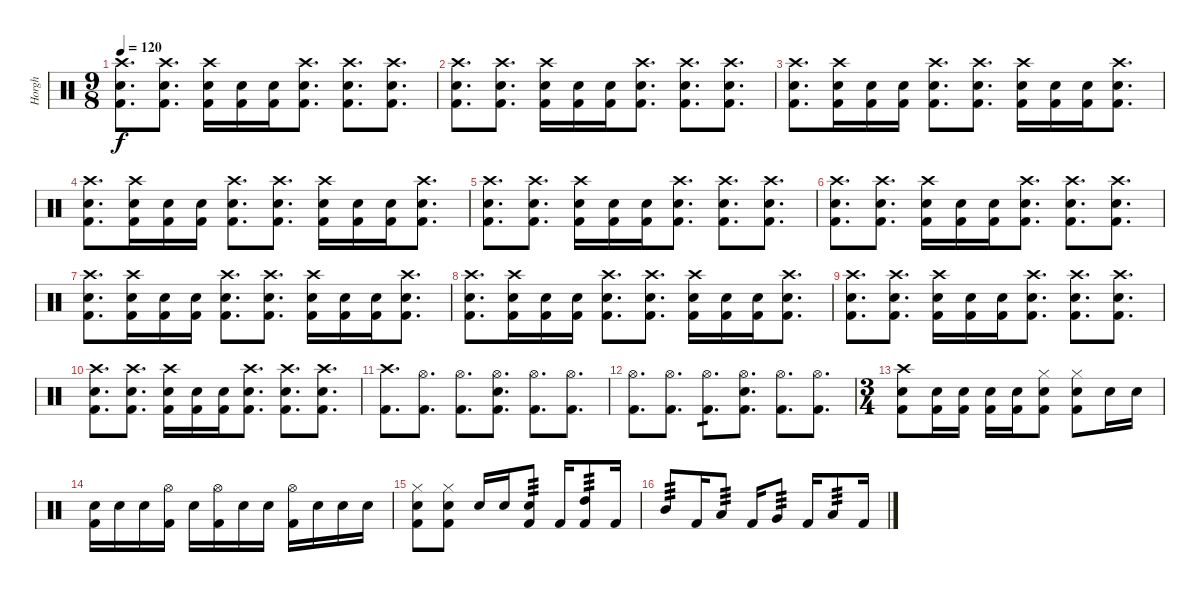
\track ("Horgh" "Horgh") {instrument percussion}
\staff {score}
\articulation defaults
\ts (9 8)
\tempo 120
\clef neutral
\ks c
("Crash high (hit)" "Snare (hit) 2" "Kick (hit) 2").8{d dy f} ("Crash high (hit)" "Snare (hit) 2" "Kick (hit) 2").8{d} ("Crash high (hit)" "Snare (hit) 2" "Kick (hit) 2").16 ("Snare (hit) 2" "Kick (hit) 2").16 ("Snare (hit) 2" "Kick (hit) 2").16 ("Crash high (hit)" "Snare (hit) 2" "Kick (hit) 2").8{d} ("Crash high (hit)" "Snare (hit) 2" "Kick (hit) 2").8{d} ("Crash high (hit)" "Snare (hit) 2" "Kick (hit) 2").8{d} |
("Crash high (hit)" "Snare (hit) 2" "Kick (hit) 2").8{d} ("Crash high (hit)" "Snare (hit) 2" "Kick (hit) 2").8{d} ("Crash high (hit)" "Snare (hit) 2" "Kick (hit) 2").16 ("Snare (hit) 2" "Kick (hit) 2").16 ("Snare (hit) 2" "Kick (hit) 2").16 ("Crash high (hit)" "Snare (hit) 2" "Kick (hit) 2").8{d} ("Crash high (hit)" "Snare (hit) 2" "Kick (hit) 2").8{d} ("Crash high (hit)" "Snare (hit) 2" "Kick (hit) 2").8{d} |
("Crash high (hit)" "Snare (hit) 2" "Kick (hit) 2").8{d} ("Crash high (hit)" "Snare (hit) 2" "Kick (hit) 2").16 ("Snare (hit) 2" "Kick (hit) 2").16 ("Snare (hit) 2" "Kick (hit) 2").16 ("Crash high (hit)" "Snare (hit) 2" "Kick (hit) 2").8{d} ("Crash high (hit)" "Snare (hit) 2" "Kick (hit) 2").8{d} ("Crash high (hit)" "Snare (hit) 2" "Kick (hit) 2").16 ("Snare (hit) 2" "Kick (hit) 2").16 ("Snare (hit) 2" "Kick (hit) 2").16 ("Crash high (hit)" "Snare (hit) 2" "Kick (hit) 2").8{d} |
("Crash high (hit)" "Snare (hit) 2" "Kick (hit) 2").8{d} ("Crash high (hit)" "Snare (hit) 2" "Kick (hit) 2").16 ("Snare (hit) 2" "Kick (hit) 2").16 ("Snare (hit) 2" "Kick (hit) 2").16 ("Crash high (hit)" "Snare (hit) 2" "Kick (hit) 2").8{d} ("Crash high (hit)" "Snare (hit) 2" "Kick (hit) 2").8{d} ("Crash high (hit)" "Snare (hit) 2" "Kick (hit) 2").16 ("Snare (hit) 2" "Kick (hit) 2").16 ("Snare (hit) 2" "Kick (hit) 2").16 ("Crash high (hit)" "Snare (hit) 2" "Kick (hit) 2").8{d} |
("Crash high (hit)" "Snare (hit) 2" "Kick (hit) 2").8{d} ("Crash high (hit)" "Snare (hit) 2" "Kick (hit) 2").8{d} ("Crash high (hit)" "Snare (hit) 2" "Kick (hit) 2").16 ("Snare (hit) 2" "Kick (hit) 2").16 ("Snare (hit) 2" "Kick (hit) 2").16 ("Crash high (hit)" "Snare (hit) 2" "Kick (hit) 2").8{d} ("Crash high (hit)" "Snare (hit) 2" "Kick (hit) 2").8{d} ("Crash high (hit)" "Snare (hit) 2" "Kick (hit) 2").8{d} |
("Crash high (hit)" "Snare (hit) 2" "Kick (hit) 2").8{d} ("Crash high (hit)" "Snare (hit) 2" "Kick (hit) 2").8{d} ("Crash high (hit)" "Snare (hit) 2" "Kick (hit) 2").16 ("Snare (hit) 2" "Kick (hit) 2").16 ("Snare (hit) 2" "Kick (hit) 2").16 ("Crash high (hit)" "Snare (hit) 2" "Kick (hit) 2").8{d} ("Crash high (hit)" "Snare (hit) 2" "Kick (hit) 2").8{d} ("Crash high (hit)" "Snare (hit) 2" "Kick (hit) 2").8{d} |
("Crash high (hit)" "Snare (hit) 2" "Kick (hit) 2").8{d} ("Crash high (hit)" "Snare (hit) 2" "Kick (hit) 2").16 ("Snare (hit) 2" "Kick (hit) 2").16 ("Snare (hit) 2" "Kick (hit) 2").16 ("Crash high (hit)" "Snare (hit) 2" "Kick (hit) 2").8{d} ("Crash high (hit)" "Snare (hit) 2" "Kick (hit) 2").8{d} ("Crash high (hit)" "Snare (hit) 2" "Kick (hit) 2").16 ("Snare (hit) 2" "Kick (hit) 2").16 ("Snare (hit) 2" "Kick (hit) 2").16 ("Crash high (hit)" "Snare (hit) 2" "Kick (hit) 2").8{d} |
("Crash high (hit)" "Snare (hit) 2" "Kick (hit) 2").8{d} ("Crash high (hit)" "Snare (hit) 2" "Kick (hit) 2").16 ("Snare (hit) 2" "Kick (hit) 2").16 ("Snare (hit) 2" "Kick (hit) 2").16 ("Crash high (hit)" "Snare (hit) 2" "Kick (hit) 2").8{d} ("Crash high (hit)" "Snare (hit) 2" "Kick (hit) 2").8{d} ("Crash high (hit)" "Snare (hit) 2" "Kick (hit) 2").16 ("Snare (hit) 2" "Kick (hit) 2").16 ("Snare (hit) 2" "Kick (hit) 2").16 ("Crash high (hit)" "Snare (hit) 2" "Kick (hit) 2").8{d} |
("Crash high (hit)" "Snare (hit) 2" "Kick (hit) 2").8{d} ("Crash high (hit)" "Snare (hit) 2" "Kick (hit) 2").8{d} ("Crash high (hit)" "Snare (hit) 2" "Kick (hit) 2").16 ("Snare (hit) 2" "Kick (hit) 2").16 ("Snare (hit) 2" "Kick (hit) 2").16 ("Crash high (hit)" "Snare (hit) 2" "Kick (hit) 2").8{d} ("Crash high (hit)" "Snare (hit) 2" "Kick (hit) 2").8{d} ("Crash high (hit)" "Snare (hit) 2" "Kick (hit) 2").8{d} |
("Crash high (hit)" "Snare (hit) 2" "Kick (hit) 2").8{d} ("Crash high (hit)" "Snare (hit) 2" "Kick (hit) 2").8{d} ("Crash high (hit)" "Snare (hit) 2" "Kick (hit) 2").16 ("Snare (hit) 2" "Kick (hit) 2").16 ("Snare (hit) 2" "Kick (hit) 2").16 ("Crash high (hit)" "Snare (hit) 2" "Kick (hit) 2").8{d} ("Crash high (hit)" "Snare (hit) 2" "Kick (hit) 2").8{d} ("Crash high (hit)" "Snare (hit) 2" "Kick (hit) 2").8{d} |
("Crash high (hit)" "Kick (hit) 2").8{d} ("Hi-Hat (open)" "Kick (hit) 2").8{d} ("Hi-Hat (open)" "Kick (hit) 2").8{d} ("Hi-Hat (open)" "Snare (hit) 2" "Kick (hit) 2").8{d} ("Hi-Hat (open)" "Kick (hit) 2").8{d} ("Hi-Hat (open)" "Kick (hit) 2").8{d} |
("Hi-Hat (open)" "Kick (hit) 2").8{d} ("Hi-Hat (open)" "Kick (hit) 2").8{d} ("Hi-Hat (open)" "Kick (hit) 2").8{d tp 1} ("Hi-Hat (open)" "Snare (hit) 2" "Kick (hit) 2").8{d} ("Hi-Hat (open)" "Kick (hit) 2").8{d} ("Hi-Hat (open)" "Kick (hit) 2").8{d} |
\ts (3 4)
("Crash high (hit)" "Snare (hit) 2" "Kick (hit) 2").8 ("Snare (hit) 2" "Kick (hit) 2").16 ("Snare (hit) 2" "Kick (hit) 2").16 ("Snare (hit) 2" "Kick (hit) 2").16 ("Snare (hit) 2" "Kick (hit) 2").16 ("Hi-Hat (closed)" "Snare (hit) 2" "Kick (hit) 2").8 ("Hi-Hat (closed)" "Snare (hit) 2" "Kick (hit) 2").8 "Snare (hit) 2".16 "Snare (hit) 2".16 |
("Snare (hit) 2" "Kick (hit) 2").16 "Snare (hit) 2".16 "Snare (hit) 2".16 ("Hi-Hat (open)" "Kick (hit) 2").16 "Snare (hit) 2".16 ("Hi-Hat (open)" "Kick (hit) 2").16 "Snare (hit) 2".16 "Snare (hit) 2".16 ("Hi-Hat (open)" "Kick (hit) 2").16 "Snare (hit) 2".16 "Snare (hit) 2".16 "Snare (hit) 2".16 |
("Hi-Hat (closed)" "Snare (hit) 2" "Kick (hit) 2").8 ("Hi-Hat (closed)" "Snare (hit) 2" "Kick (hit) 2").8 "Snare (hit) 2".16 "Snare (hit) 2".16 ("Snare (hit) 2" "Kick (hit) 2").8{tp 3} "Kick (hit) 2".16 ("High Tom (hit)" "Kick (hit) 2").8{tp 3} "Kick (hit) 2".16 |
"Mid Tom (hit)".8{tp 3} "Kick (hit) 2".16 "Low Tom (hit)".8{tp 3} "Kick (hit) 2".16 "Very Low Tom (hit)".8{tp 3} "Kick (hit) 2".16 "Low Floor Tom (hit)".8{tp 3} "Kick (hit) 2".16
